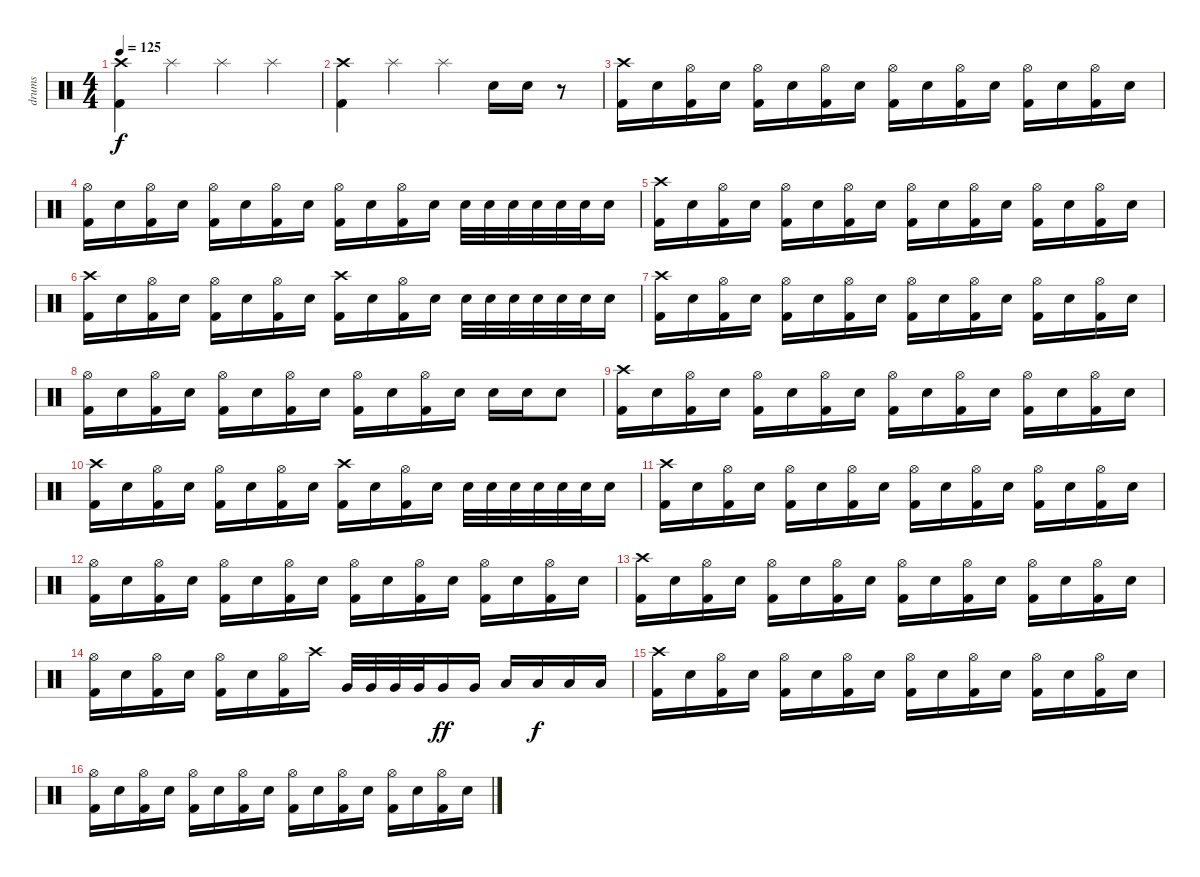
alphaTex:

\track ("drums" "drums") {instrument percussion}
\staff {score}
\articulation defaults
\ts (4 4)
\tempo 125
\clef neutral
\ks c
("Crash high (hit)" "Kick (hit) 2").4{dy f} "Splash (hit)".4 "Splash (hit)".4 "Splash (hit)".4 |
("Crash high (hit)" "Kick (hit) 2").4 "Splash (hit)".4 "Splash (hit)".4 "Electric Snare (hit)".16 "Electric Snare (hit)".16 r.8 |
("Crash high (hit)" "Kick (hit) 2").16 "Electric Snare (hit)".16 ("Hi-Hat (open)" "Kick (hit) 2").16 "Electric Snare (hit)".16 ("Hi-Hat (open)" "Kick (hit) 2").16 "Electric Snare (hit)".16 ("Hi-Hat (open)" "Kick (hit) 2").16 "Electric Snare (hit)".16 ("Hi-Hat (open)" "Kick (hit) 2").16 "Electric Snare (hit)".16 ("Hi-Hat (open)" "Kick (hit) 2").16 "Electric Snare (hit)".16 ("Hi-Hat (open)" "Kick (hit) 2").16 "Electric Snare (hit)".16 ("Hi-Hat (open)" "Kick (hit) 2").16 "Electric Snare (hit)".16 |
("Hi-Hat (open)" "Kick (hit) 2").16 "Electric Snare (hit)".16 ("Hi-Hat (open)" "Kick (hit) 2").16 "Electric Snare (hit)".16 ("Hi-Hat (open)" "Kick (hit) 2").16 "Electric Snare (hit)".16 ("Hi-Hat (open)" "Kick (hit) 2").16 "Electric Snare (hit)".16 ("Hi-Hat (open)" "Kick (hit) 2").16 "Electric Snare (hit)".16 ("Hi-Hat (open)" "Kick (hit) 2").16 "Electric Snare (hit)".16 "Electric Snare (hit)".32 "Electric Snare (hit)".32 "Electric Snare (hit)".32 "Electric Snare (hit)".32 "Electric Snare (hit)".32 "Electric Snare (hit)".32 "Electric Snare (hit)".16 |
("Crash high (hit)" "Kick (hit) 2").16{volume 12} "Electric Snare (hit)".16 ("Hi-Hat (open)" "Kick (hit) 2").16 "Electric Snare (hit)".16 ("Hi-Hat (open)" "Kick (hit) 2").16 "Electric Snare (hit)".16 ("Hi-Hat (open)" "Kick (hit) 2").16 "Electric Snare (hit)".16 ("Hi-Hat (open)" "Kick (hit) 2").16 "Electric Snare (hit)".16 ("Hi-Hat (open)" "Kick (hit) 2").16 "Electric Snare (hit)".16 ("Hi-Hat (open)" "Kick (hit) 2").16 "Electric Snare (hit)".16 ("Hi-Hat (open)" "Kick (hit) 2").16 "Electric Snare (hit)".16 |
("Crash high (hit)" "Kick (hit) 2").16 "Electric Snare (hit)".16 ("Hi-Hat (open)" "Kick (hit) 2").16 "Electric Snare (hit)".16 ("Hi-Hat (open)" "Kick (hit) 2").16 "Electric Snare (hit)".16 ("Hi-Hat (open)" "Kick (hit) 2").16 "Electric Snare (hit)".16 ("Crash high (hit)" "Kick (hit) 2").16 "Electric Snare (hit)".16 ("Hi-Hat (open)" "Kick (hit) 2").16 "Electric Snare (hit)".16 "Electric Snare (hit)".32 "Electric Snare (hit)".32 "Electric Snare (hit)".32 "Electric Snare (hit)".32 "Electric Snare (hit)".32 "Electric Snare (hit)".32 "Electric Snare (hit)".16 |
("Crash high (hit)" "Kick (hit) 2").16{volume 15} "Electric Snare (hit)".16 ("Hi-Hat (open)" "Kick (hit) 2").16 "Electric Snare (hit)".16 ("Hi-Hat (open)" "Kick (hit) 2").16 "Electric Snare (hit)".16 ("Hi-Hat (open)" "Kick (hit) 2").16 "Electric Snare (hit)".16 ("Hi-Hat (open)" "Kick (hit) 2").16 "Electric Snare (hit)".16 ("Hi-Hat (open)" "Kick (hit) 2").16 "Electric Snare (hit)".16 ("Hi-Hat (open)" "Kick (hit) 2").16 "Electric Snare (hit)".16 ("Hi-Hat (open)" "Kick (hit) 2").16 "Electric Snare (hit)".16 |
("Hi-Hat (open)" "Kick (hit) 2").16 "Electric Snare (hit)".16 ("Hi-Hat (open)" "Kick (hit) 2").16 "Electric Snare (hit)".16 ("Hi-Hat (open)" "Kick (hit) 2").16 "Electric Snare (hit)".16 ("Hi-Hat (open)" "Kick (hit) 2").16 "Electric Snare (hit)".16 ("Hi-Hat (open)" "Kick (hit) 2").16 "Electric Snare (hit)".16 ("Hi-Hat (open)" "Kick (hit) 2").16 "Electric Snare (hit)".16 "Electric Snare (hit)".16 "Electric Snare (hit)".16 "Electric Snare (hit)".8 |
("Crash high (hit)" "Kick (hit) 2").16{volume 13} "Electric Snare (hit)".16 ("Hi-Hat (open)" "Kick (hit) 2").16 "Electric Snare (hit)".16 ("Hi-Hat (open)" "Kick (hit) 2").16 "Electric Snare (hit)".16 ("Hi-Hat (open)" "Kick (hit) 2").16 "Electric Snare (hit)".16 ("Hi-Hat (open)" "Kick (hit) 2").16 "Electric Snare (hit)".16 ("Hi-Hat (open)" "Kick (hit) 2").16 "Electric Snare (hit)".16 ("Hi-Hat (open)" "Kick (hit) 2").16 "Electric Snare (hit)".16 ("Hi-Hat (open)" "Kick (hit) 2").16 "Electric Snare (hit)".16 |
("Crash high (hit)" "Kick (hit) 2").16 "Electric Snare (hit)".16 ("Hi-Hat (open)" "Kick (hit) 2").16 "Electric Snare (hit)".16 ("Hi-Hat (open)" "Kick (hit) 2").16 "Electric Snare (hit)".16 ("Hi-Hat (open)" "Kick (hit) 2").16 "Electric Snare (hit)".16 ("Crash high (hit)" "Kick (hit) 2").16 "Electric Snare (hit)".16 ("Hi-Hat (open)" "Kick (hit) 2").16 "Electric Snare (hit)".16 "Electric Snare (hit)".32 "Electric Snare (hit)".32 "Electric Snare (hit)".32 "Electric Snare (hit)".32 "Electric Snare (hit)".32 "Electric Snare (hit)".32 "Electric Snare (hit)".16 |
("Crash high (hit)" "Kick (hit) 2").16{volume 15} "Electric Snare (hit)".16 ("Hi-Hat (open)" "Kick (hit) 2").16 "Electric Snare (hit)".16 ("Hi-Hat (open)" "Kick (hit) 2").16 "Electric Snare (hit)".16 ("Hi-Hat (open)" "Kick (hit) 2").16 "Electric Snare (hit)".16 ("Hi-Hat (open)" "Kick (hit) 2").16 "Electric Snare (hit)".16 ("Hi-Hat (open)" "Kick (hit) 2").16 "Electric Snare (hit)".16 ("Hi-Hat (open)" "Kick (hit) 2").16 "Electric Snare (hit)".16 ("Hi-Hat (open)" "Kick (hit) 2").16 "Electric Snare (hit)".16 |
("Hi-Hat (open)" "Kick (hit) 2").16 "Electric Snare (hit)".16 ("Hi-Hat (open)" "Kick (hit) 2").16 "Electric Snare (hit)".16 ("Hi-Hat (open)" "Kick (hit) 2").16 "Electric Snare (hit)".16 ("Hi-Hat (open)" "Kick (hit) 2").16 "Electric Snare (hit)".16 ("Hi-Hat (open)" "Kick (hit) 2").16 "Electric Snare (hit)".16 ("Hi-Hat (open)" "Kick (hit) 2").16 "Electric Snare (hit)".16 ("Hi-Hat (open)" "Kick (hit) 2").16 "Electric Snare (hit)".16 ("Hi-Hat (open)" "Kick (hit) 2").16 "Electric Snare (hit)".16 |
("Crash high (hit)" "Kick (hit) 2").16 "Electric Snare (hit)".16 ("Hi-Hat (open)" "Kick (hit) 2").16 "Electric Snare (hit)".16 ("Hi-Hat (open)" "Kick (hit) 2").16 "Electric Snare (hit)".16 ("Hi-Hat (open)" "Kick (hit) 2").16 "Electric Snare (hit)".16 ("Hi-Hat (open)" "Kick (hit) 2").16 "Electric Snare (hit)".16 ("Hi-Hat (open)" "Kick (hit) 2").16 "Electric Snare (hit)".16 ("Hi-Hat (open)" "Kick (hit) 2").16 "Electric Snare (hit)".16 ("Hi-Hat (open)" "Kick (hit) 2").16 "Electric Snare (hit)".16 |
("Hi-Hat (open)" "Kick (hit) 2").16 "Electric Snare (hit)".16 ("Hi-Hat (open)" "Kick (hit) 2").16 "Electric Snare (hit)".16 ("Hi-Hat (open)" "Kick (hit) 2").16 "Electric Snare (hit)".16 ("Hi-Hat (open)" "Kick (hit) 2").16 "Crash high (hit)".16 "Very Low Tom (hit)".32 "Very Low Tom (hit)".32 "Very Low Tom (hit)".32 "Very Low Tom (hit)".32 "Very Low Tom (hit)".16{dy ff} "Very Low Tom (hit)".16 "Low Floor Tom (hit)".16 "Low Floor Tom (hit)".16{dy f} "Low Floor Tom (hit)".16 "Low Floor Tom (hit)".16 |
("Crash high (hit)" "Kick (hit) 2").16 "Electric Snare (hit)".16 ("Hi-Hat (open)" "Kick (hit) 2").16 "Electric Snare (hit)".16 ("Hi-Hat (open)" "Kick (hit) 2").16 "Electric Snare (hit)".16 ("Hi-Hat (open)" "Kick (hit) 2").16 "Electric Snare (hit)".16 ("Hi-Hat (open)" "Kick (hit) 2").16 "Electric Snare (hit)".16 ("Hi-Hat (open)" "Kick (hit) 2").16 "Electric Snare (hit)".16 ("Hi-Hat (open)" "Kick (hit) 2").16 "Electric Snare (hit)".16 ("Hi-Hat (open)" "Kick (hit) 2").16 "Electric Snare (hit)".16 |
("Hi-Hat (open)" "Kick (hit) 2").16 "Electric Snare (hit)".16 ("Hi-Hat (open)" "Kick (hit) 2").16 "Electric Snare (hit)".16 ("Hi-Hat (open)" "Kick (hit) 2").16 "Electric Snare (hit)".16 ("Hi-Hat (open)" "Kick (hit) 2").16 "Electric Snare (hit)".16 ("Hi-Hat (open)" "Kick (hit) 2").16 "Electric Snare (hit)".16 ("Hi-Hat (open)" "Kick (hit) 2").16 "Electric Snare (hit)".16 ("Hi-Hat (open)" "Kick (hit) 2").16 "Electric Snare (hit)".16 ("Hi-Hat (open)" "Kick (hit) 2").16 "Electric Snare (hit)".16
